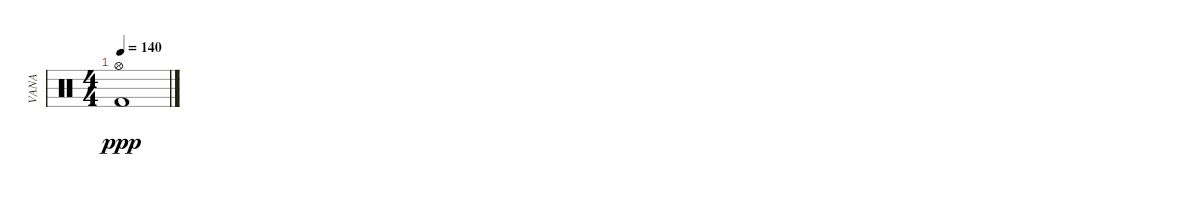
\track ("VANA" "VANA") {instrument percussion}
\staff {score}
\articulation defaults
\ts (4 4)
\tempo 140
\clef neutral
\ks c
("Hi-Hat (open)" "Kick (hit) 2").1{dy ppp}
